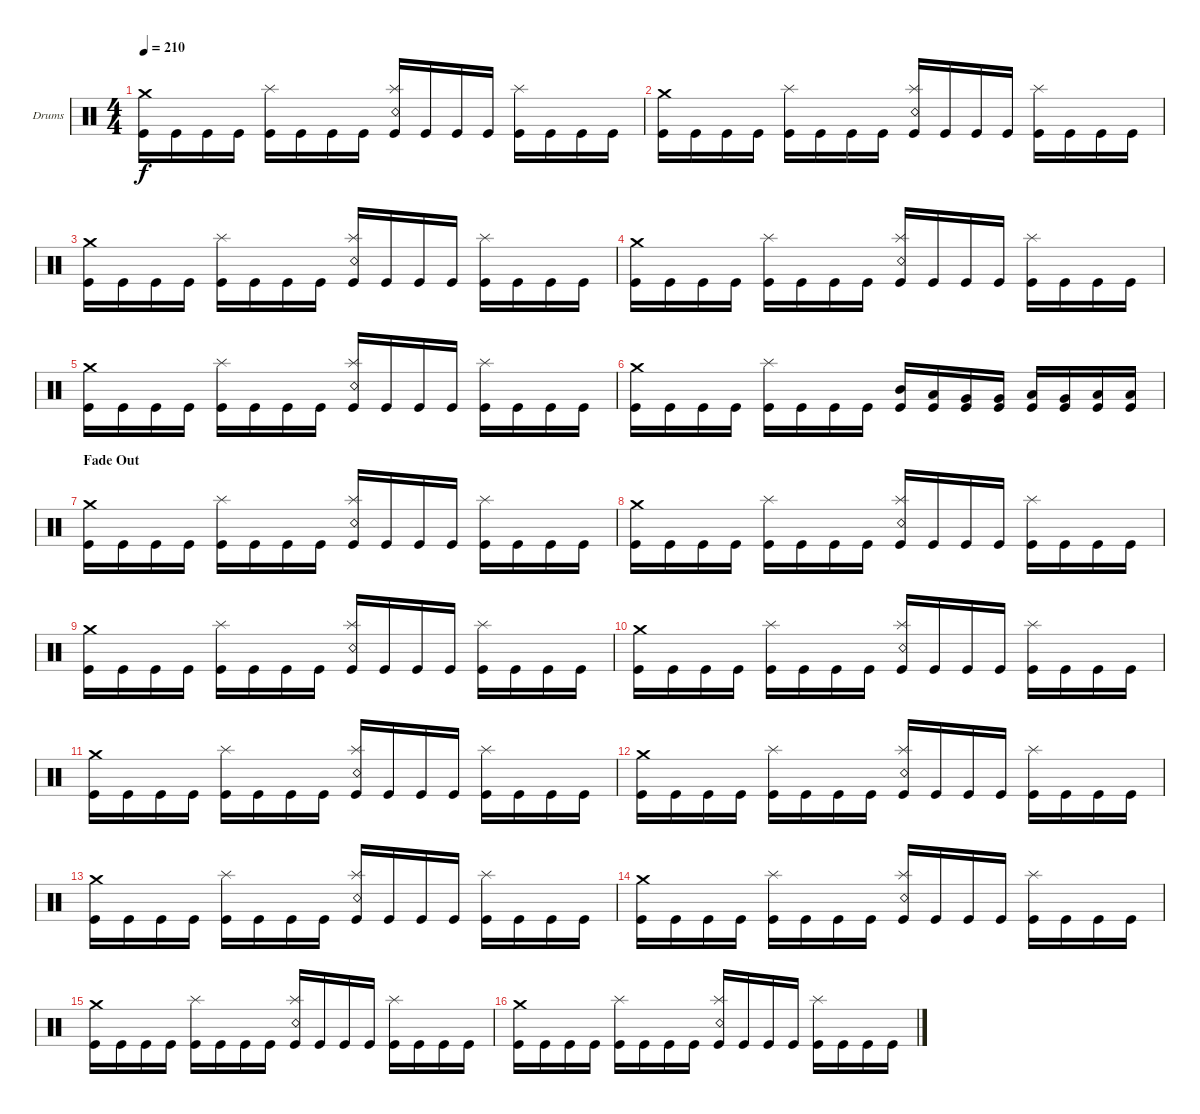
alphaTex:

\defaultSystemsLayout 4
\bracketExtendMode groupsimilarinstruments
\firstSystemTrackNameOrientation horizontal
\otherSystemsTrackNameOrientation horizontal
\track ("Drums" "Drums") {instrument percussion}
\staff {score}
\articulation defaults
\ts (4 4)
\tempo 210
\clef neutral
\ks c
("Kick (hit)" "Crash medium (hit)").16{dy f} "Kick (hit)".16 "Kick (hit)".16 "Kick (hit)".16 ("Kick (hit)" "Splash (hit)").16 "Kick (hit)".16 "Kick (hit)".16 "Kick (hit)".16 ("Kick (hit)" "Snare (rim shot)" "Splash (hit)").16 "Kick (hit)".16 "Kick (hit)".16 "Kick (hit)".16 ("Kick (hit)" "Splash (hit)").16 "Kick (hit)".16 "Kick (hit)".16 "Kick (hit)".16 |
("Kick (hit)" "Crash medium (hit)").16 "Kick (hit)".16 "Kick (hit)".16 "Kick (hit)".16 ("Kick (hit)" "Splash (hit)").16 "Kick (hit)".16 "Kick (hit)".16 "Kick (hit)".16 ("Kick (hit)" "Snare (rim shot)" "Splash (hit)").16 "Kick (hit)".16 "Kick (hit)".16 "Kick (hit)".16 ("Kick (hit)" "Splash (hit)").16 "Kick (hit)".16 "Kick (hit)".16 "Kick (hit)".16 |
("Kick (hit)" "Crash medium (hit)").16 "Kick (hit)".16 "Kick (hit)".16 "Kick (hit)".16 ("Kick (hit)" "Splash (hit)").16 "Kick (hit)".16 "Kick (hit)".16 "Kick (hit)".16 ("Kick (hit)" "Snare (rim shot)" "Splash (hit)").16 "Kick (hit)".16 "Kick (hit)".16 "Kick (hit)".16 ("Kick (hit)" "Splash (hit)").16 "Kick (hit)".16 "Kick (hit)".16 "Kick (hit)".16 |
("Kick (hit)" "Crash medium (hit)").16 "Kick (hit)".16 "Kick (hit)".16 "Kick (hit)".16 ("Kick (hit)" "Splash (hit)").16 "Kick (hit)".16 "Kick (hit)".16 "Kick (hit)".16 ("Kick (hit)" "Snare (rim shot)" "Splash (hit)").16 "Kick (hit)".16 "Kick (hit)".16 "Kick (hit)".16 ("Kick (hit)" "Splash (hit)").16 "Kick (hit)".16 "Kick (hit)".16 "Kick (hit)".16 |
("Kick (hit)" "Crash medium (hit)").16 "Kick (hit)".16 "Kick (hit)".16 "Kick (hit)".16 ("Kick (hit)" "Splash (hit)").16 "Kick (hit)".16 "Kick (hit)".16 "Kick (hit)".16 ("Kick (hit)" "Snare (rim shot)" "Splash (hit)").16 "Kick (hit)".16 "Kick (hit)".16 "Kick (hit)".16 ("Kick (hit)" "Splash (hit)").16 "Kick (hit)".16 "Kick (hit)".16 "Kick (hit)".16 |
("Kick (hit)" "Crash medium (hit)").16 "Kick (hit)".16 "Kick (hit)".16 "Kick (hit)".16 ("Kick (hit)" "Splash (hit)").16 "Kick (hit)".16 "Kick (hit)".16 "Kick (hit)".16 ("Kick (hit)" "Mid Tom (hit)").16 ("Kick (hit)" "Low Tom (hit)").16 ("Kick (hit)" "Very Low Tom (hit)").16 ("Kick (hit)" "Very Low Tom (hit)").16 ("Kick (hit)" "Low Tom (hit)").16 ("Kick (hit)" "Very Low Tom (hit)").16 ("Kick (hit)" "Low Tom (hit)").16 ("Kick (hit)" "Low Tom (hit)").16 |
\section ("" "Fade Out")
("Kick (hit)" "Crash medium (hit)").16 "Kick (hit)".16 "Kick (hit)".16 "Kick (hit)".16 ("Kick (hit)" "Splash (hit)").16 "Kick (hit)".16 "Kick (hit)".16 "Kick (hit)".16 ("Kick (hit)" "Snare (rim shot)" "Splash (hit)").16 "Kick (hit)".16 "Kick (hit)".16 "Kick (hit)".16 ("Kick (hit)" "Splash (hit)").16 "Kick (hit)".16 "Kick (hit)".16 "Kick (hit)".16 |
("Kick (hit)" "Crash medium (hit)").16 "Kick (hit)".16 "Kick (hit)".16 "Kick (hit)".16 ("Kick (hit)" "Splash (hit)").16 "Kick (hit)".16 "Kick (hit)".16 "Kick (hit)".16 ("Kick (hit)" "Snare (rim shot)" "Splash (hit)").16 "Kick (hit)".16 "Kick (hit)".16 "Kick (hit)".16 ("Kick (hit)" "Splash (hit)").16 "Kick (hit)".16 "Kick (hit)".16 "Kick (hit)".16 |
("Kick (hit)" "Crash medium (hit)").16 "Kick (hit)".16 "Kick (hit)".16 "Kick (hit)".16 ("Kick (hit)" "Splash (hit)").16 "Kick (hit)".16 "Kick (hit)".16 "Kick (hit)".16 ("Kick (hit)" "Snare (rim shot)" "Splash (hit)").16 "Kick (hit)".16 "Kick (hit)".16 "Kick (hit)".16 ("Kick (hit)" "Splash (hit)").16 "Kick (hit)".16 "Kick (hit)".16 "Kick (hit)".16 |
("Kick (hit)" "Crash medium (hit)").16 "Kick (hit)".16 "Kick (hit)".16 "Kick (hit)".16 ("Kick (hit)" "Splash (hit)").16 "Kick (hit)".16 "Kick (hit)".16 "Kick (hit)".16 ("Kick (hit)" "Snare (rim shot)" "Splash (hit)").16 "Kick (hit)".16 "Kick (hit)".16 "Kick (hit)".16 ("Kick (hit)" "Splash (hit)").16 "Kick (hit)".16 "Kick (hit)".16 "Kick (hit)".16 |
("Kick (hit)" "Crash medium (hit)").16 "Kick (hit)".16 "Kick (hit)".16 "Kick (hit)".16 ("Kick (hit)" "Splash (hit)").16 "Kick (hit)".16 "Kick (hit)".16 "Kick (hit)".16 ("Kick (hit)" "Snare (rim shot)" "Splash (hit)").16 "Kick (hit)".16 "Kick (hit)".16 "Kick (hit)".16 ("Kick (hit)" "Splash (hit)").16 "Kick (hit)".16 "Kick (hit)".16 "Kick (hit)".16 |
("Kick (hit)" "Crash medium (hit)").16 "Kick (hit)".16 "Kick (hit)".16 "Kick (hit)".16 ("Kick (hit)" "Splash (hit)").16 "Kick (hit)".16 "Kick (hit)".16 "Kick (hit)".16 ("Kick (hit)" "Snare (rim shot)" "Splash (hit)").16 "Kick (hit)".16 "Kick (hit)".16 "Kick (hit)".16 ("Kick (hit)" "Splash (hit)").16 "Kick (hit)".16 "Kick (hit)".16 "Kick (hit)".16 |
("Kick (hit)" "Crash medium (hit)").16 "Kick (hit)".16 "Kick (hit)".16 "Kick (hit)".16 ("Kick (hit)" "Splash (hit)").16 "Kick (hit)".16 "Kick (hit)".16 "Kick (hit)".16 ("Kick (hit)" "Snare (rim shot)" "Splash (hit)").16 "Kick (hit)".16 "Kick (hit)".16 "Kick (hit)".16 ("Kick (hit)" "Splash (hit)").16 "Kick (hit)".16 "Kick (hit)".16 "Kick (hit)".16 |
("Kick (hit)" "Crash medium (hit)").16 "Kick (hit)".16 "Kick (hit)".16 "Kick (hit)".16 ("Kick (hit)" "Splash (hit)").16 "Kick (hit)".16 "Kick (hit)".16 "Kick (hit)".16 ("Kick (hit)" "Snare (rim shot)" "Splash (hit)").16 "Kick (hit)".16 "Kick (hit)".16 "Kick (hit)".16 ("Kick (hit)" "Splash (hit)").16 "Kick (hit)".16 "Kick (hit)".16 "Kick (hit)".16 |
("Kick (hit)" "Crash medium (hit)").16 "Kick (hit)".16 "Kick (hit)".16 "Kick (hit)".16 ("Kick (hit)" "Splash (hit)").16 "Kick (hit)".16 "Kick (hit)".16 "Kick (hit)".16 ("Kick (hit)" "Snare (rim shot)" "Splash (hit)").16 "Kick (hit)".16 "Kick (hit)".16 "Kick (hit)".16 ("Kick (hit)" "Splash (hit)").16 "Kick (hit)".16 "Kick (hit)".16 "Kick (hit)".16 |
("Kick (hit)" "Crash medium (hit)").16 "Kick (hit)".16 "Kick (hit)".16 "Kick (hit)".16 ("Kick (hit)" "Splash (hit)").16 "Kick (hit)".16 "Kick (hit)".16 "Kick (hit)".16 ("Kick (hit)" "Snare (rim shot)" "Splash (hit)").16 "Kick (hit)".16 "Kick (hit)".16 "Kick (hit)".16 ("Kick (hit)" "Splash (hit)").16 "Kick (hit)".16 "Kick (hit)".16 "Kick (hit)".16
